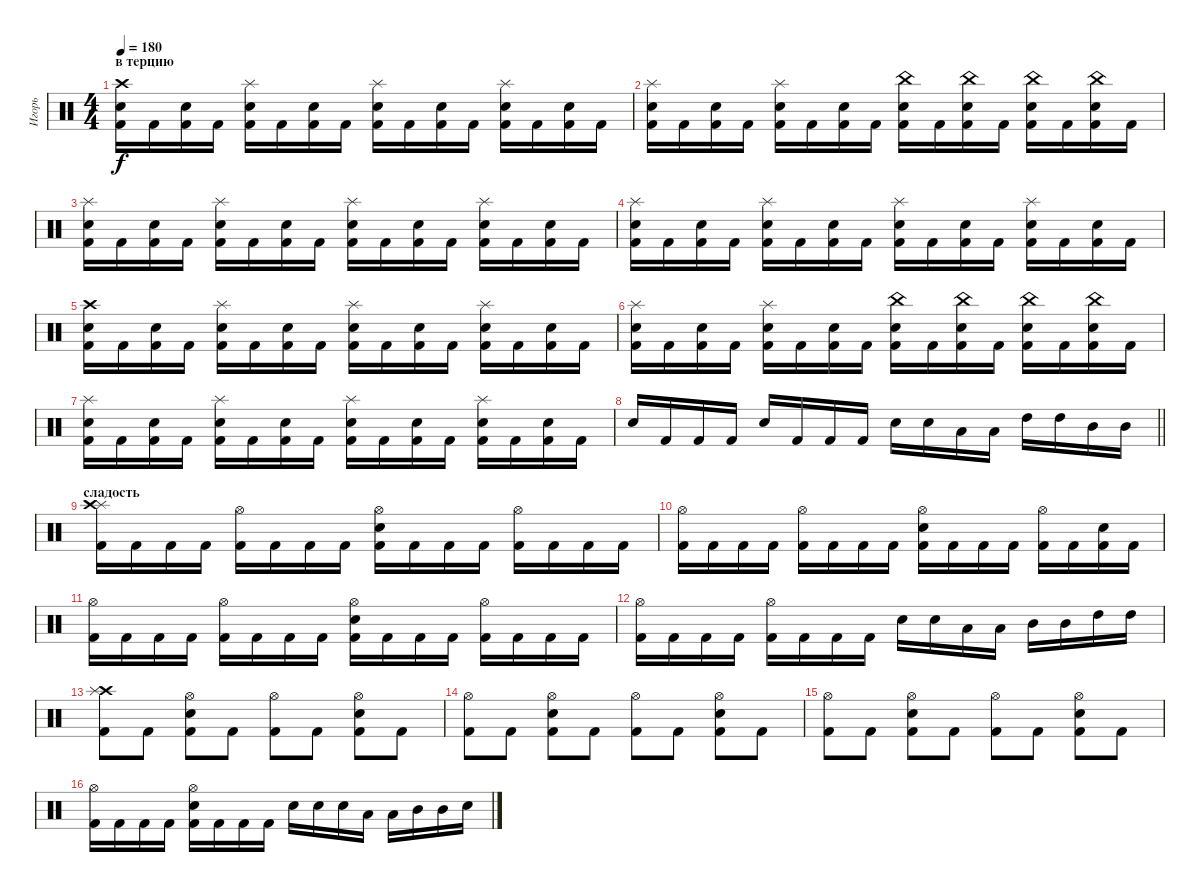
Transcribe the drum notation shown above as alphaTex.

\track ("Игорь" "Игорь") {instrument percussion}
\staff {score}
\articulation defaults
\ts (4 4)
\section ("" "в терцию")
\tempo 180
\clef neutral
\ks c
("Crash high (hit)" "Electric Snare (hit)" "Kick (hit) 2").16{dy f} "Kick (hit) 2".16 ("Electric Snare (hit)" "Kick (hit) 2").16 "Kick (hit) 2".16 ("Splash (hit)" "Electric Snare (hit)" "Kick (hit) 2").16 "Kick (hit) 2".16 ("Electric Snare (hit)" "Kick (hit) 2").16 "Kick (hit) 2".16 ("Splash (hit)" "Electric Snare (hit)" "Kick (hit) 2").16 "Kick (hit) 2".16 ("Electric Snare (hit)" "Kick (hit) 2").16 "Kick (hit) 2".16 ("Splash (hit)" "Electric Snare (hit)" "Kick (hit) 2").16 "Kick (hit) 2".16 ("Electric Snare (hit)" "Kick (hit) 2").16 "Kick (hit) 2".16 |
("Splash (hit)" "Electric Snare (hit)" "Kick (hit) 2").16 "Kick (hit) 2".16 ("Electric Snare (hit)" "Kick (hit) 2").16 "Kick (hit) 2".16 ("Splash (hit)" "Electric Snare (hit)" "Kick (hit) 2").16 "Kick (hit) 2".16 ("Electric Snare (hit)" "Kick (hit) 2").16 "Kick (hit) 2".16 ("China (hit)" "Electric Snare (hit)" "Kick (hit) 2").16 "Kick (hit) 2".16 ("China (hit)" "Electric Snare (hit)" "Kick (hit) 2").16 "Kick (hit) 2".16 ("China (hit)" "Electric Snare (hit)" "Kick (hit) 2").16 "Kick (hit) 2".16 ("China (hit)" "Electric Snare (hit)" "Kick (hit) 2").16 "Kick (hit) 2".16 |
("Splash (hit)" "Electric Snare (hit)" "Kick (hit) 2").16 "Kick (hit) 2".16 ("Electric Snare (hit)" "Kick (hit) 2").16 "Kick (hit) 2".16 ("Splash (hit)" "Electric Snare (hit)" "Kick (hit) 2").16 "Kick (hit) 2".16 ("Electric Snare (hit)" "Kick (hit) 2").16 "Kick (hit) 2".16 ("Splash (hit)" "Electric Snare (hit)" "Kick (hit) 2").16 "Kick (hit) 2".16 ("Electric Snare (hit)" "Kick (hit) 2").16 "Kick (hit) 2".16 ("Splash (hit)" "Electric Snare (hit)" "Kick (hit) 2").16 "Kick (hit) 2".16 ("Electric Snare (hit)" "Kick (hit) 2").16 "Kick (hit) 2".16 |
("Splash (hit)" "Electric Snare (hit)" "Kick (hit) 2").16 "Kick (hit) 2".16 ("Electric Snare (hit)" "Kick (hit) 2").16 "Kick (hit) 2".16 ("Splash (hit)" "Electric Snare (hit)" "Kick (hit) 2").16 "Kick (hit) 2".16 ("Electric Snare (hit)" "Kick (hit) 2").16 "Kick (hit) 2".16 ("Splash (hit)" "Electric Snare (hit)" "Kick (hit) 2").16 "Kick (hit) 2".16 ("Electric Snare (hit)" "Kick (hit) 2").16 "Kick (hit) 2".16 ("Splash (hit)" "Electric Snare (hit)" "Kick (hit) 2").16 "Kick (hit) 2".16 ("Electric Snare (hit)" "Kick (hit) 2").16 "Kick (hit) 2".16 |
("Crash high (hit)" "Electric Snare (hit)" "Kick (hit) 2").16 "Kick (hit) 2".16 ("Electric Snare (hit)" "Kick (hit) 2").16 "Kick (hit) 2".16 ("Splash (hit)" "Electric Snare (hit)" "Kick (hit) 2").16 "Kick (hit) 2".16 ("Electric Snare (hit)" "Kick (hit) 2").16 "Kick (hit) 2".16 ("Splash (hit)" "Electric Snare (hit)" "Kick (hit) 2").16 "Kick (hit) 2".16 ("Electric Snare (hit)" "Kick (hit) 2").16 "Kick (hit) 2".16 ("Splash (hit)" "Electric Snare (hit)" "Kick (hit) 2").16 "Kick (hit) 2".16 ("Electric Snare (hit)" "Kick (hit) 2").16 "Kick (hit) 2".16 |
("Splash (hit)" "Electric Snare (hit)" "Kick (hit) 2").16 "Kick (hit) 2".16 ("Electric Snare (hit)" "Kick (hit) 2").16 "Kick (hit) 2".16 ("Splash (hit)" "Electric Snare (hit)" "Kick (hit) 2").16 "Kick (hit) 2".16 ("Electric Snare (hit)" "Kick (hit) 2").16 "Kick (hit) 2".16 ("China (hit)" "Electric Snare (hit)" "Kick (hit) 2").16 "Kick (hit) 2".16 ("China (hit)" "Electric Snare (hit)" "Kick (hit) 2").16 "Kick (hit) 2".16 ("China (hit)" "Electric Snare (hit)" "Kick (hit) 2").16 "Kick (hit) 2".16 ("China (hit)" "Electric Snare (hit)" "Kick (hit) 2").16 "Kick (hit) 2".16 |
("Splash (hit)" "Electric Snare (hit)" "Kick (hit) 2").16 "Kick (hit) 2".16 ("Electric Snare (hit)" "Kick (hit) 2").16 "Kick (hit) 2".16 ("Splash (hit)" "Electric Snare (hit)" "Kick (hit) 2").16 "Kick (hit) 2".16 ("Electric Snare (hit)" "Kick (hit) 2").16 "Kick (hit) 2".16 ("Splash (hit)" "Electric Snare (hit)" "Kick (hit) 2").16 "Kick (hit) 2".16 ("Electric Snare (hit)" "Kick (hit) 2").16 "Kick (hit) 2".16 ("Splash (hit)" "Electric Snare (hit)" "Kick (hit) 2").16 "Kick (hit) 2".16 ("Electric Snare (hit)" "Kick (hit) 2").16 "Kick (hit) 2".16 |
\barLineRight lightlight "Electric Snare (hit)".16 "Kick (hit) 2".16 "Kick (hit) 2".16 "Kick (hit) 2".16 "Electric Snare (hit)".16 "Kick (hit) 2".16 "Kick (hit) 2".16 "Kick (hit) 2".16 "Electric Snare (hit)".16 "Electric Snare (hit)".16 "Low Tom (hit)".16 "Low Tom (hit)".16 "High Tom (hit)".16 "High Tom (hit)".16 "Mid Tom (hit)".16 "Mid Tom (hit)".16
|
\section ("" "сладость")
("Splash (hit)" "Crash high (hit)" "Kick (hit) 2").16 "Kick (hit) 2".16 "Kick (hit) 2".16 "Kick (hit) 2".16 ("Hi-Hat (open)" "Kick (hit) 2").16 "Kick (hit) 2".16 "Kick (hit) 2".16 "Kick (hit) 2".16 ("Hi-Hat (open)" "Electric Snare (hit)" "Kick (hit) 2").16 "Kick (hit) 2".16 "Kick (hit) 2".16 "Kick (hit) 2".16 ("Hi-Hat (open)" "Kick (hit) 2").16 "Kick (hit) 2".16 "Kick (hit) 2".16 "Kick (hit) 2".16 |
("Hi-Hat (open)" "Kick (hit) 2").16 "Kick (hit) 2".16 "Kick (hit) 2".16 "Kick (hit) 2".16 ("Hi-Hat (open)" "Kick (hit) 2").16 "Kick (hit) 2".16 "Kick (hit) 2".16 "Kick (hit) 2".16 ("Hi-Hat (open)" "Electric Snare (hit)" "Kick (hit) 2").16 "Kick (hit) 2".16 "Kick (hit) 2".16 "Kick (hit) 2".16 ("Hi-Hat (open)" "Kick (hit) 2").16 "Kick (hit) 2".16 ("Electric Snare (hit)" "Kick (hit) 2").16 "Kick (hit) 2".16 |
("Hi-Hat (open)" "Kick (hit) 2").16 "Kick (hit) 2".16 "Kick (hit) 2".16 "Kick (hit) 2".16 ("Hi-Hat (open)" "Kick (hit) 2").16 "Kick (hit) 2".16 "Kick (hit) 2".16 "Kick (hit) 2".16 ("Hi-Hat (open)" "Electric Snare (hit)" "Kick (hit) 2").16 "Kick (hit) 2".16 "Kick (hit) 2".16 "Kick (hit) 2".16 ("Hi-Hat (open)" "Kick (hit) 2").16 "Kick (hit) 2".16 "Kick (hit) 2".16 "Kick (hit) 2".16 |
("Hi-Hat (open)" "Kick (hit) 2").16 "Kick (hit) 2".16 "Kick (hit) 2".16 "Kick (hit) 2".16 ("Hi-Hat (open)" "Kick (hit) 2").16 "Kick (hit) 2".16 "Kick (hit) 2".16 "Kick (hit) 2".16 "Electric Snare (hit)".16 "Electric Snare (hit)".16 "Low Tom (hit)".16 "Low Tom (hit)".16 "Mid Tom (hit)".16 "Mid Tom (hit)".16 "High Tom (hit)".16 "High Tom (hit)".16 |
("Crash high (hit)" "Splash (hit)" "Kick (hit) 2").8 "Kick (hit) 2".8 ("Hi-Hat (open)" "Electric Snare (hit)" "Kick (hit) 2").8 "Kick (hit) 2".8 ("Hi-Hat (open)" "Kick (hit) 2").8 "Kick (hit) 2".8 ("Hi-Hat (open)" "Electric Snare (hit)" "Kick (hit) 2").8 "Kick (hit) 2".8 |
("Hi-Hat (open)" "Kick (hit) 2").8 "Kick (hit) 2".8 ("Hi-Hat (open)" "Electric Snare (hit)" "Kick (hit) 2").8 "Kick (hit) 2".8 ("Hi-Hat (open)" "Kick (hit) 2").8 "Kick (hit) 2".8 ("Hi-Hat (open)" "Electric Snare (hit)" "Kick (hit) 2").8 "Kick (hit) 2".8 |
("Hi-Hat (open)" "Kick (hit) 2").8 "Kick (hit) 2".8 ("Hi-Hat (open)" "Electric Snare (hit)" "Kick (hit) 2").8 "Kick (hit) 2".8 ("Hi-Hat (open)" "Kick (hit) 2").8 "Kick (hit) 2".8 ("Hi-Hat (open)" "Electric Snare (hit)" "Kick (hit) 2").8 "Kick (hit) 2".8 |
("Hi-Hat (open)" "Kick (hit) 2").16 "Kick (hit) 2".16 "Kick (hit) 2".16 "Kick (hit) 2".16 ("Hi-Hat (open)" "Electric Snare (hit)" "Kick (hit) 2").16 "Kick (hit) 2".16 "Kick (hit) 2".16 "Kick (hit) 2".16 "Electric Snare (hit)".16 "Electric Snare (hit)".16 "Electric Snare (hit)".16 "Low Tom (hit)".16 "Low Tom (hit)".16 "Mid Tom (hit)".16 "Mid Tom (hit)".16 "Electric Snare (hit)".16
